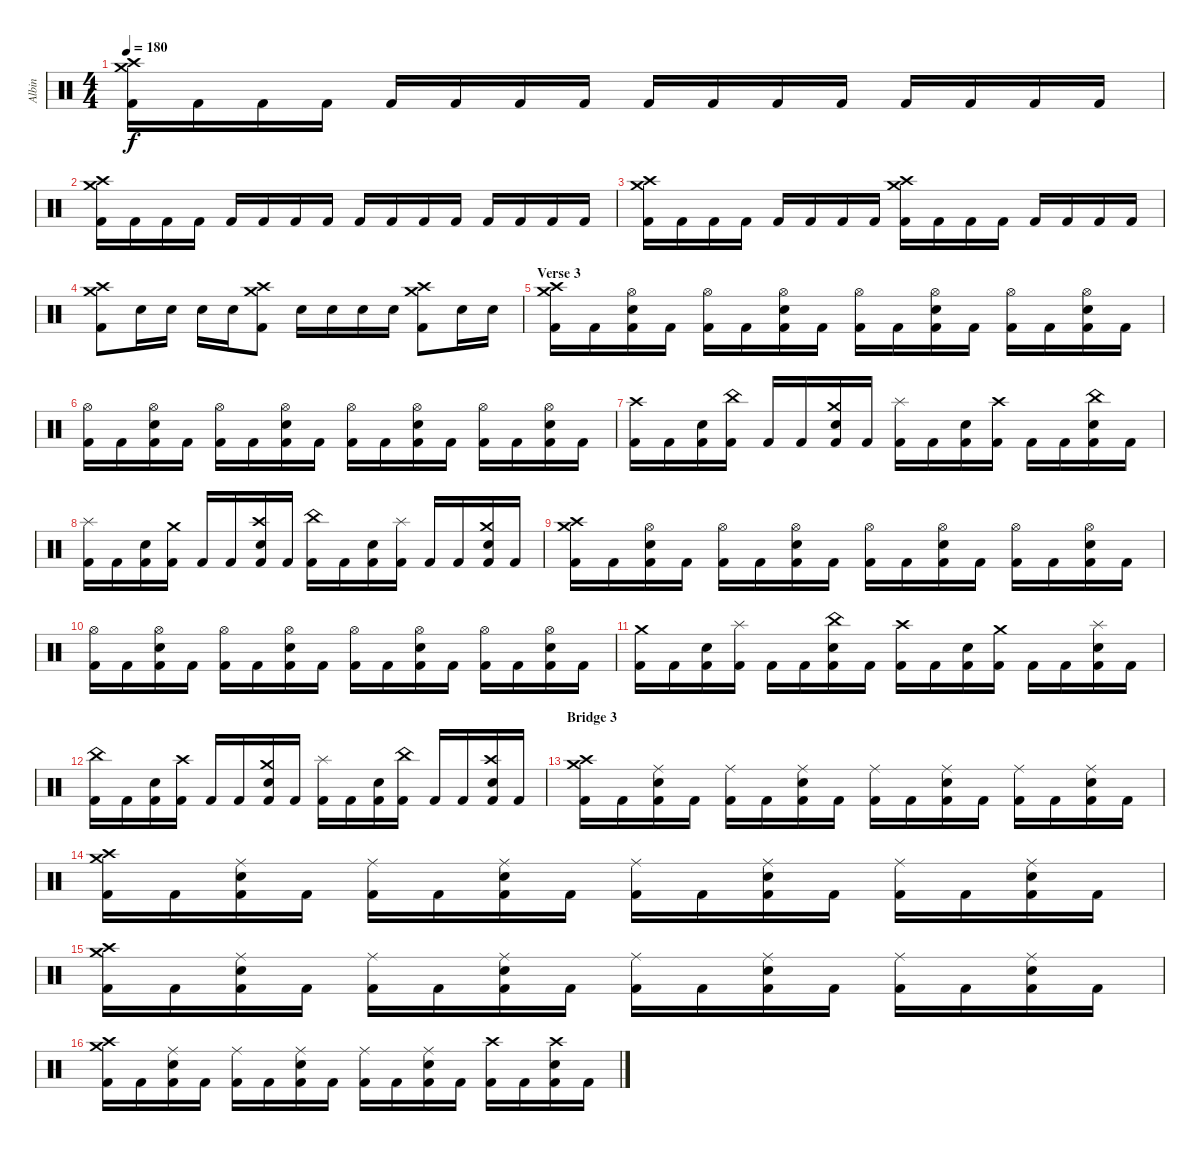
\track ("Albin" "Albin") {instrument percussion}
\staff {score}
\articulation defaults
\ts (4 4)
\tempo 180
\clef neutral
\ks c
("Kick (hit) 2" "Crash high (hit)" "Crash medium (hit)").16{dy f} "Kick (hit) 2".16 "Kick (hit) 2".16 "Kick (hit) 2".16 "Kick (hit) 2".16 "Kick (hit) 2".16 "Kick (hit) 2".16 "Kick (hit) 2".16 "Kick (hit) 2".16 "Kick (hit) 2".16 "Kick (hit) 2".16 "Kick (hit) 2".16 "Kick (hit) 2".16 "Kick (hit) 2".16 "Kick (hit) 2".16 "Kick (hit) 2".16 |
("Kick (hit) 2" "Crash high (hit)" "Crash medium (hit)").16 "Kick (hit) 2".16 "Kick (hit) 2".16 "Kick (hit) 2".16 "Kick (hit) 2".16 "Kick (hit) 2".16 "Kick (hit) 2".16 "Kick (hit) 2".16 "Kick (hit) 2".16 "Kick (hit) 2".16 "Kick (hit) 2".16 "Kick (hit) 2".16 "Kick (hit) 2".16 "Kick (hit) 2".16 "Kick (hit) 2".16 "Kick (hit) 2".16 |
("Kick (hit) 2" "Crash high (hit)" "Crash medium (hit)").16 "Kick (hit) 2".16 "Kick (hit) 2".16 "Kick (hit) 2".16 "Kick (hit) 2".16 "Kick (hit) 2".16 "Kick (hit) 2".16 "Kick (hit) 2".16 ("Kick (hit) 2" "Crash high (hit)" "Crash medium (hit)").16 "Kick (hit) 2".16 "Kick (hit) 2".16 "Kick (hit) 2".16 "Kick (hit) 2".16 "Kick (hit) 2".16 "Kick (hit) 2".16 "Kick (hit) 2".16 |
("Kick (hit) 2" "Crash high (hit)" "Crash medium (hit)").8 "Electric Snare (hit)".16 "Electric Snare (hit)".16 "Electric Snare (hit)".16 "Electric Snare (hit)".16 ("Kick (hit) 2" "Crash high (hit)" "Crash medium (hit)").8 "Electric Snare (hit)".16 "Electric Snare (hit)".16 "Electric Snare (hit)".16 "Electric Snare (hit)".16 ("Kick (hit) 2" "Crash high (hit)" "Crash medium (hit)").8 "Electric Snare (hit)".16 "Electric Snare (hit)".16 |
\section ("" "Verse 3")
("Kick (hit) 2" "Crash high (hit)" "Crash medium (hit)").16 "Kick (hit) 2".16 ("Kick (hit) 2" "Electric Snare (hit)" "Hi-Hat (open)").16 "Kick (hit) 2".16 ("Kick (hit) 2" "Hi-Hat (open)").16 "Kick (hit) 2".16 ("Kick (hit) 2" "Electric Snare (hit)" "Hi-Hat (open)").16 "Kick (hit) 2".16 ("Kick (hit) 2" "Hi-Hat (open)").16 "Kick (hit) 2".16 ("Kick (hit) 2" "Electric Snare (hit)" "Hi-Hat (open)").16 "Kick (hit) 2".16 ("Kick (hit) 2" "Hi-Hat (open)").16 "Kick (hit) 2".16 ("Kick (hit) 2" "Electric Snare (hit)" "Hi-Hat (open)").16 "Kick (hit) 2".16 |
("Kick (hit) 2" "Hi-Hat (open)").16 "Kick (hit) 2".16 ("Kick (hit) 2" "Electric Snare (hit)" "Hi-Hat (open)").16 "Kick (hit) 2".16 ("Kick (hit) 2" "Hi-Hat (open)").16 "Kick (hit) 2".16 ("Kick (hit) 2" "Electric Snare (hit)" "Hi-Hat (open)").16 "Kick (hit) 2".16 ("Kick (hit) 2" "Hi-Hat (open)").16 "Kick (hit) 2".16 ("Kick (hit) 2" "Electric Snare (hit)" "Hi-Hat (open)").16 "Kick (hit) 2".16 ("Kick (hit) 2" "Hi-Hat (open)").16 "Kick (hit) 2".16 ("Kick (hit) 2" "Electric Snare (hit)" "Hi-Hat (open)").16 "Kick (hit) 2".16 |
("Kick (hit) 2" "Crash high (hit)").16 "Kick (hit) 2".16 ("Kick (hit) 2" "Electric Snare (hit)").16 ("Kick (hit) 2" "China (hit)").16 "Kick (hit) 2".16 "Kick (hit) 2".16 ("Kick (hit) 2" "Electric Snare (hit)" "Crash medium (hit)").16 "Kick (hit) 2".16 ("Kick (hit) 2" "Splash (hit)").16 "Kick (hit) 2".16 ("Kick (hit) 2" "Electric Snare (hit)").16 ("Kick (hit) 2" "Crash high (hit)").16 "Kick (hit) 2".16 "Kick (hit) 2".16 ("Kick (hit) 2" "Electric Snare (hit)" "China (hit)").16 "Kick (hit) 2".16 |
("Kick (hit) 2" "Splash (hit)").16 "Kick (hit) 2".16 ("Kick (hit) 2" "Electric Snare (hit)").16 ("Kick (hit) 2" "Crash medium (hit)").16 "Kick (hit) 2".16 "Kick (hit) 2".16 ("Kick (hit) 2" "Electric Snare (hit)" "Crash high (hit)").16 "Kick (hit) 2".16 ("Kick (hit) 2" "China (hit)").16 "Kick (hit) 2".16 ("Kick (hit) 2" "Electric Snare (hit)").16 ("Kick (hit) 2" "Splash (hit)").16 "Kick (hit) 2".16 "Kick (hit) 2".16 ("Kick (hit) 2" "Electric Snare (hit)" "Crash medium (hit)").16 "Kick (hit) 2".16 |
("Kick (hit) 2" "Crash high (hit)" "Crash medium (hit)").16 "Kick (hit) 2".16 ("Kick (hit) 2" "Electric Snare (hit)" "Hi-Hat (open)").16 "Kick (hit) 2".16 ("Kick (hit) 2" "Hi-Hat (open)").16 "Kick (hit) 2".16 ("Kick (hit) 2" "Electric Snare (hit)" "Hi-Hat (open)").16 "Kick (hit) 2".16 ("Kick (hit) 2" "Hi-Hat (open)").16 "Kick (hit) 2".16 ("Kick (hit) 2" "Electric Snare (hit)" "Hi-Hat (open)").16 "Kick (hit) 2".16 ("Kick (hit) 2" "Hi-Hat (open)").16 "Kick (hit) 2".16 ("Kick (hit) 2" "Electric Snare (hit)" "Hi-Hat (open)").16 "Kick (hit) 2".16 |
("Kick (hit) 2" "Hi-Hat (open)").16 "Kick (hit) 2".16 ("Kick (hit) 2" "Electric Snare (hit)" "Hi-Hat (open)").16 "Kick (hit) 2".16 ("Kick (hit) 2" "Hi-Hat (open)").16 "Kick (hit) 2".16 ("Kick (hit) 2" "Electric Snare (hit)" "Hi-Hat (open)").16 "Kick (hit) 2".16 ("Kick (hit) 2" "Hi-Hat (open)").16 "Kick (hit) 2".16 ("Kick (hit) 2" "Electric Snare (hit)" "Hi-Hat (open)").16 "Kick (hit) 2".16 ("Kick (hit) 2" "Hi-Hat (open)").16 "Kick (hit) 2".16 ("Kick (hit) 2" "Electric Snare (hit)" "Hi-Hat (open)").16 "Kick (hit) 2".16 |
("Kick (hit) 2" "Crash medium (hit)").16 "Kick (hit) 2".16 ("Kick (hit) 2" "Electric Snare (hit)").16 ("Kick (hit) 2" "Splash (hit)").16 "Kick (hit) 2".16 "Kick (hit) 2".16 ("Kick (hit) 2" "Electric Snare (hit)" "China (hit)").16 "Kick (hit) 2".16 ("Kick (hit) 2" "Crash high (hit)").16 "Kick (hit) 2".16 ("Kick (hit) 2" "Electric Snare (hit)").16 ("Kick (hit) 2" "Crash medium (hit)").16 "Kick (hit) 2".16 "Kick (hit) 2".16 ("Kick (hit) 2" "Electric Snare (hit)" "Splash (hit)").16 "Kick (hit) 2".16 |
("Kick (hit) 2" "China (hit)").16 "Kick (hit) 2".16 ("Kick (hit) 2" "Electric Snare (hit)").16 ("Kick (hit) 2" "Crash high (hit)").16 "Kick (hit) 2".16 "Kick (hit) 2".16 ("Kick (hit) 2" "Electric Snare (hit)" "Crash medium (hit)").16 "Kick (hit) 2".16 ("Kick (hit) 2" "Splash (hit)").16 "Kick (hit) 2".16 ("Kick (hit) 2" "Electric Snare (hit)").16 ("Kick (hit) 2" "China (hit)").16 "Kick (hit) 2".16 "Kick (hit) 2".16 ("Kick (hit) 2" "Electric Snare (hit)" "Crash high (hit)").16 "Kick (hit) 2".16 |
\section ("" "Bridge 3")
("Kick (hit) 2" "Crash high (hit)" "Crash medium (hit)").16 "Kick (hit) 2".16 ("Kick (hit) 2" "Electric Snare (hit)" "Ride (middle)").16 "Kick (hit) 2".16 ("Kick (hit) 2" "Ride (middle)").16 "Kick (hit) 2".16 ("Kick (hit) 2" "Electric Snare (hit)" "Ride (middle)").16 "Kick (hit) 2".16 ("Kick (hit) 2" "Ride (middle)").16 "Kick (hit) 2".16 ("Kick (hit) 2" "Electric Snare (hit)" "Ride (middle)").16 "Kick (hit) 2".16 ("Kick (hit) 2" "Ride (middle)").16 "Kick (hit) 2".16 ("Kick (hit) 2" "Electric Snare (hit)" "Ride (middle)").16 "Kick (hit) 2".16 |
("Kick (hit) 2" "Crash high (hit)" "Crash medium (hit)").16 "Kick (hit) 2".16 ("Kick (hit) 2" "Electric Snare (hit)" "Ride (middle)").16 "Kick (hit) 2".16 ("Kick (hit) 2" "Ride (middle)").16 "Kick (hit) 2".16 ("Kick (hit) 2" "Electric Snare (hit)" "Ride (middle)").16 "Kick (hit) 2".16 ("Kick (hit) 2" "Ride (middle)").16 "Kick (hit) 2".16 ("Kick (hit) 2" "Electric Snare (hit)" "Ride (middle)").16 "Kick (hit) 2".16 ("Kick (hit) 2" "Ride (middle)").16 "Kick (hit) 2".16 ("Kick (hit) 2" "Electric Snare (hit)" "Ride (middle)").16 "Kick (hit) 2".16 |
("Kick (hit) 2" "Crash high (hit)" "Crash medium (hit)").16 "Kick (hit) 2".16 ("Kick (hit) 2" "Electric Snare (hit)" "Ride (middle)").16 "Kick (hit) 2".16 ("Kick (hit) 2" "Ride (middle)").16 "Kick (hit) 2".16 ("Kick (hit) 2" "Electric Snare (hit)" "Ride (middle)").16 "Kick (hit) 2".16 ("Kick (hit) 2" "Ride (middle)").16 "Kick (hit) 2".16 ("Kick (hit) 2" "Electric Snare (hit)" "Ride (middle)").16 "Kick (hit) 2".16 ("Kick (hit) 2" "Ride (middle)").16 "Kick (hit) 2".16 ("Kick (hit) 2" "Electric Snare (hit)" "Ride (middle)").16 "Kick (hit) 2".16 |
("Kick (hit) 2" "Crash high (hit)" "Crash medium (hit)").16 "Kick (hit) 2".16 ("Kick (hit) 2" "Electric Snare (hit)" "Ride (middle)").16 "Kick (hit) 2".16 ("Kick (hit) 2" "Ride (middle)").16 "Kick (hit) 2".16 ("Kick (hit) 2" "Electric Snare (hit)" "Ride (middle)").16 "Kick (hit) 2".16 ("Kick (hit) 2" "Ride (middle)").16 "Kick (hit) 2".16 ("Kick (hit) 2" "Electric Snare (hit)" "Ride (middle)").16 "Kick (hit) 2".16 ("Kick (hit) 2" "Crash high (hit)").16 "Kick (hit) 2".16 ("Kick (hit) 2" "Electric Snare (hit)" "Crash high (hit)").16 "Kick (hit) 2".16
